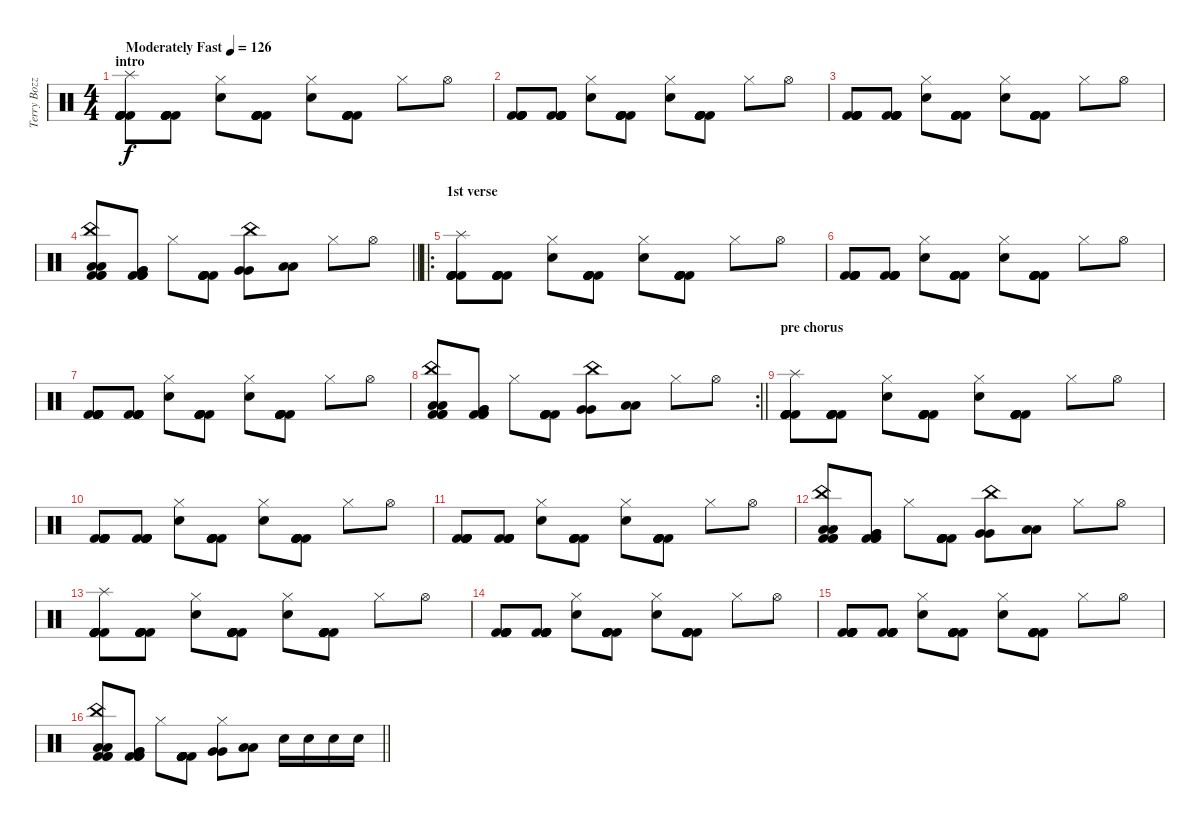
\track ("Terry Bozzio" "Terry Bozz") {instrument percussion}
\staff {score}
\articulation defaults
\ts (4 4)
\section ("" "intro")
\tempo (126 "Moderately Fast")
\clef neutral
\ks c
("Splash (hit)" "Kick (hit) 2" "Kick (hit) 2" "Kick (hit) 2" "Kick (hit) 2" "Kick (hit) 2").8{dy f} ("Kick (hit) 2" "Kick (hit) 2" "Kick (hit) 2" "Kick (hit) 2" "Kick (hit) 2").8 ("Hi-Hat (closed)" "Snare (hit) 2").8 ("Kick (hit) 2" "Kick (hit) 2" "Kick (hit) 2" "Kick (hit) 2" "Kick (hit) 2").8 ("Hi-Hat (closed)" "Snare (hit) 2").8 ("Kick (hit) 2" "Kick (hit) 2" "Kick (hit) 2" "Kick (hit) 2" "Kick (hit) 2").8 "Hi-Hat (closed)".8 "Hi-Hat (open)".8 |
("Kick (hit) 2" "Kick (hit) 2" "Kick (hit) 2" "Kick (hit) 2" "Kick (hit) 2").8 ("Kick (hit) 2" "Kick (hit) 2" "Kick (hit) 2" "Kick (hit) 2" "Kick (hit) 2").8 ("Hi-Hat (closed)" "Snare (hit) 2").8 ("Kick (hit) 2" "Kick (hit) 2" "Kick (hit) 2" "Kick (hit) 2" "Kick (hit) 2").8 ("Hi-Hat (closed)" "Snare (hit) 2").8 ("Kick (hit) 2" "Kick (hit) 2" "Kick (hit) 2" "Kick (hit) 2" "Kick (hit) 2").8 "Hi-Hat (closed)".8 "Hi-Hat (open)".8 |
("Kick (hit) 2" "Kick (hit) 2" "Kick (hit) 2" "Kick (hit) 2" "Kick (hit) 2").8 ("Kick (hit) 2" "Kick (hit) 2" "Kick (hit) 2" "Kick (hit) 2" "Kick (hit) 2").8 ("Hi-Hat (closed)" "Snare (hit) 2").8 ("Kick (hit) 2" "Kick (hit) 2" "Kick (hit) 2" "Kick (hit) 2" "Kick (hit) 2").8 ("Hi-Hat (closed)" "Snare (hit) 2").8 ("Kick (hit) 2" "Kick (hit) 2" "Kick (hit) 2" "Kick (hit) 2" "Kick (hit) 2").8 "Hi-Hat (closed)".8 "Hi-Hat (open)".8 |
\barLineRight lightlight
("China (hit)" "Low Tom (hit)" "Low Tom (hit)" "Kick (hit) 2" "Kick (hit) 2" "Kick (hit) 2").8 ("Very Low Tom (hit)" "Very Low Tom (hit)" "Kick (hit) 2" "Kick (hit) 2" "Kick (hit) 2").8 "Hi-Hat (closed)".8 ("Kick (hit) 2" "Kick (hit) 2" "Kick (hit) 2" "Kick (hit) 2" "Kick (hit) 2").8 ("China (hit)" "Very Low Tom (hit)" "Very Low Tom (hit)").8 ("Low Floor Tom (hit)" "Low Floor Tom (hit)").8 "Hi-Hat (closed)".8 "Hi-Hat (open)".8 |
\ro
\section ("" "1st verse")
("Splash (hit)" "Kick (hit) 2" "Kick (hit) 2" "Kick (hit) 2" "Kick (hit) 2" "Kick (hit) 2").8 ("Kick (hit) 2" "Kick (hit) 2" "Kick (hit) 2" "Kick (hit) 2" "Kick (hit) 2").8 ("Hi-Hat (closed)" "Snare (hit) 2").8 ("Kick (hit) 2" "Kick (hit) 2" "Kick (hit) 2" "Kick (hit) 2" "Kick (hit) 2").8 ("Hi-Hat (closed)" "Snare (hit) 2").8 ("Kick (hit) 2" "Kick (hit) 2" "Kick (hit) 2" "Kick (hit) 2" "Kick (hit) 2").8 "Hi-Hat (closed)".8 "Hi-Hat (open)".8 |
("Kick (hit) 2" "Kick (hit) 2" "Kick (hit) 2" "Kick (hit) 2" "Kick (hit) 2").8 ("Kick (hit) 2" "Kick (hit) 2" "Kick (hit) 2" "Kick (hit) 2" "Kick (hit) 2").8 ("Hi-Hat (closed)" "Snare (hit) 2").8 ("Kick (hit) 2" "Kick (hit) 2" "Kick (hit) 2" "Kick (hit) 2" "Kick (hit) 2").8 ("Hi-Hat (closed)" "Snare (hit) 2").8 ("Kick (hit) 2" "Kick (hit) 2" "Kick (hit) 2" "Kick (hit) 2" "Kick (hit) 2").8 "Hi-Hat (closed)".8 "Hi-Hat (open)".8 |
("Kick (hit) 2" "Kick (hit) 2" "Kick (hit) 2" "Kick (hit) 2" "Kick (hit) 2").8 ("Kick (hit) 2" "Kick (hit) 2" "Kick (hit) 2" "Kick (hit) 2" "Kick (hit) 2").8 ("Hi-Hat (closed)" "Snare (hit) 2").8 ("Kick (hit) 2" "Kick (hit) 2" "Kick (hit) 2" "Kick (hit) 2" "Kick (hit) 2").8 ("Hi-Hat (closed)" "Snare (hit) 2").8 ("Kick (hit) 2" "Kick (hit) 2" "Kick (hit) 2" "Kick (hit) 2" "Kick (hit) 2").8 "Hi-Hat (closed)".8 "Hi-Hat (open)".8 |
\rc 2
\barLineRight lightlight
("China (hit)" "Low Tom (hit)" "Low Tom (hit)" "Kick (hit) 2" "Kick (hit) 2" "Kick (hit) 2").8 ("Very Low Tom (hit)" "Very Low Tom (hit)" "Kick (hit) 2" "Kick (hit) 2" "Kick (hit) 2").8 "Hi-Hat (closed)".8 ("Kick (hit) 2" "Kick (hit) 2" "Kick (hit) 2" "Kick (hit) 2" "Kick (hit) 2").8 ("China (hit)" "Very Low Tom (hit)" "Very Low Tom (hit)").8 ("Low Floor Tom (hit)" "Low Floor Tom (hit)").8 "Hi-Hat (closed)".8 "Hi-Hat (open)".8 |
\section ("" "pre chorus")
("Splash (hit)" "Kick (hit) 2" "Kick (hit) 2" "Kick (hit) 2" "Kick (hit) 2" "Kick (hit) 2").8 ("Kick (hit) 2" "Kick (hit) 2" "Kick (hit) 2" "Kick (hit) 2" "Kick (hit) 2").8 ("Hi-Hat (closed)" "Snare (hit) 2").8 ("Kick (hit) 2" "Kick (hit) 2" "Kick (hit) 2" "Kick (hit) 2" "Kick (hit) 2").8 ("Hi-Hat (closed)" "Snare (hit) 2").8 ("Kick (hit) 2" "Kick (hit) 2" "Kick (hit) 2" "Kick (hit) 2" "Kick (hit) 2").8 "Hi-Hat (closed)".8 "Hi-Hat (open)".8 |
("Kick (hit) 2" "Kick (hit) 2" "Kick (hit) 2" "Kick (hit) 2" "Kick (hit) 2").8 ("Kick (hit) 2" "Kick (hit) 2" "Kick (hit) 2" "Kick (hit) 2" "Kick (hit) 2").8 ("Hi-Hat (closed)" "Snare (hit) 2").8 ("Kick (hit) 2" "Kick (hit) 2" "Kick (hit) 2" "Kick (hit) 2" "Kick (hit) 2").8 ("Hi-Hat (closed)" "Snare (hit) 2").8 ("Kick (hit) 2" "Kick (hit) 2" "Kick (hit) 2" "Kick (hit) 2" "Kick (hit) 2").8 "Hi-Hat (closed)".8 "Hi-Hat (open)".8 |
("Kick (hit) 2" "Kick (hit) 2" "Kick (hit) 2" "Kick (hit) 2" "Kick (hit) 2").8 ("Kick (hit) 2" "Kick (hit) 2" "Kick (hit) 2" "Kick (hit) 2" "Kick (hit) 2").8 ("Hi-Hat (closed)" "Snare (hit) 2").8 ("Kick (hit) 2" "Kick (hit) 2" "Kick (hit) 2" "Kick (hit) 2" "Kick (hit) 2").8 ("Hi-Hat (closed)" "Snare (hit) 2").8 ("Kick (hit) 2" "Kick (hit) 2" "Kick (hit) 2" "Kick (hit) 2" "Kick (hit) 2").8 "Hi-Hat (closed)".8 "Hi-Hat (open)".8 |
("China (hit)" "Low Tom (hit)" "Low Tom (hit)" "Kick (hit) 2" "Kick (hit) 2" "Kick (hit) 2").8 ("Very Low Tom (hit)" "Very Low Tom (hit)" "Kick (hit) 2" "Kick (hit) 2" "Kick (hit) 2").8 "Hi-Hat (closed)".8 ("Kick (hit) 2" "Kick (hit) 2" "Kick (hit) 2" "Kick (hit) 2" "Kick (hit) 2").8 ("China (hit)" "Very Low Tom (hit)" "Very Low Tom (hit)").8 ("Low Floor Tom (hit)" "Low Floor Tom (hit)").8 "Hi-Hat (closed)".8 "Hi-Hat (open)".8 |
("Splash (hit)" "Kick (hit) 2" "Kick (hit) 2" "Kick (hit) 2" "Kick (hit) 2" "Kick (hit) 2").8 ("Kick (hit) 2" "Kick (hit) 2" "Kick (hit) 2" "Kick (hit) 2" "Kick (hit) 2").8 ("Hi-Hat (closed)" "Snare (hit) 2").8 ("Kick (hit) 2" "Kick (hit) 2" "Kick (hit) 2" "Kick (hit) 2" "Kick (hit) 2").8 ("Hi-Hat (closed)" "Snare (hit) 2").8 ("Kick (hit) 2" "Kick (hit) 2" "Kick (hit) 2" "Kick (hit) 2" "Kick (hit) 2").8 "Hi-Hat (closed)".8 "Hi-Hat (open)".8 |
("Kick (hit) 2" "Kick (hit) 2" "Kick (hit) 2" "Kick (hit) 2" "Kick (hit) 2").8 ("Kick (hit) 2" "Kick (hit) 2" "Kick (hit) 2" "Kick (hit) 2" "Kick (hit) 2").8 ("Hi-Hat (closed)" "Snare (hit) 2").8 ("Kick (hit) 2" "Kick (hit) 2" "Kick (hit) 2" "Kick (hit) 2" "Kick (hit) 2").8 ("Hi-Hat (closed)" "Snare (hit) 2").8 ("Kick (hit) 2" "Kick (hit) 2" "Kick (hit) 2" "Kick (hit) 2" "Kick (hit) 2").8 "Hi-Hat (closed)".8 "Hi-Hat (open)".8 |
("Kick (hit) 2" "Kick (hit) 2" "Kick (hit) 2" "Kick (hit) 2" "Kick (hit) 2").8 ("Kick (hit) 2" "Kick (hit) 2" "Kick (hit) 2" "Kick (hit) 2" "Kick (hit) 2").8 ("Hi-Hat (closed)" "Snare (hit) 2").8 ("Kick (hit) 2" "Kick (hit) 2" "Kick (hit) 2" "Kick (hit) 2" "Kick (hit) 2").8 ("Hi-Hat (closed)" "Snare (hit) 2").8 ("Kick (hit) 2" "Kick (hit) 2" "Kick (hit) 2" "Kick (hit) 2" "Kick (hit) 2").8 "Hi-Hat (closed)".8 "Hi-Hat (open)".8 |
\barLineRight lightlight
("China (hit)" "Low Tom (hit)" "Low Tom (hit)" "Kick (hit) 2" "Kick (hit) 2" "Kick (hit) 2").8 ("Very Low Tom (hit)" "Very Low Tom (hit)" "Kick (hit) 2" "Kick (hit) 2" "Kick (hit) 2").8 "Hi-Hat (closed)".8 ("Kick (hit) 2" "Kick (hit) 2" "Kick (hit) 2" "Kick (hit) 2" "Kick (hit) 2").8 ("Hi-Hat (closed)" "Very Low Tom (hit)" "Very Low Tom (hit)").8 ("Low Floor Tom (hit)" "Low Floor Tom (hit)").8 "Snare (hit) 2".16 "Snare (hit) 2".16 "Snare (hit) 2".16 "Snare (hit) 2".16
